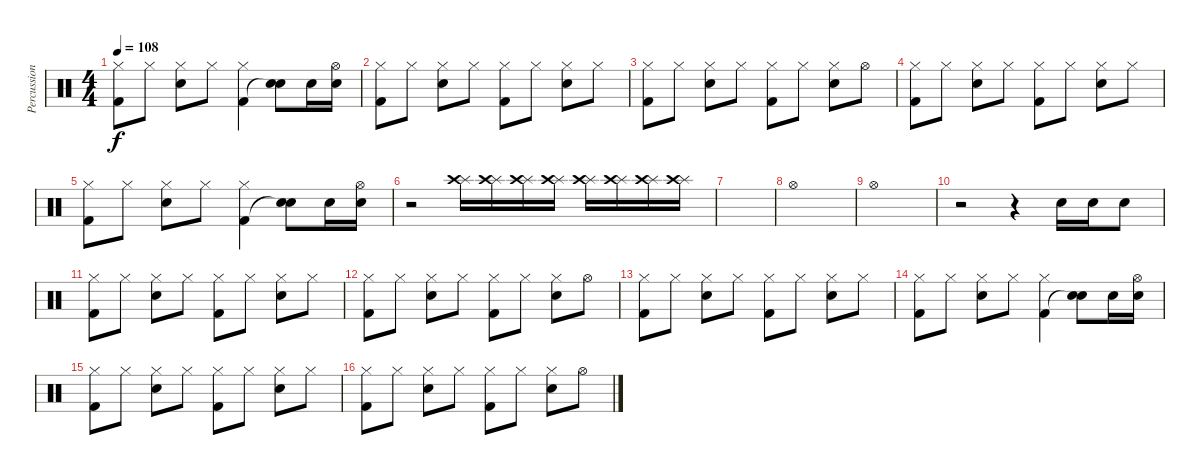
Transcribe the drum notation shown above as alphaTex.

\track ("Percussion" "Percussion") {instrument percussion}
\staff {score}
\articulation defaults
\ts (4 4)
\tempo 108
\clef neutral
\ks c
("Hi-Hat (closed)" "Kick (hit) 2").8{dy f} "Hi-Hat (closed)".8 ("Hi-Hat (closed)" "Snare (hit) 2").8 "Hi-Hat (closed)".8 ("Hi-Hat (closed)" "Kick (hit) 2").4 ("Snare (hit) 2" "Snare (hit)"{t}).8 "Snare (hit) 2".16 ("Hi-Hat (open)" "Snare (hit) 2").16 |
("Hi-Hat (closed)" "Kick (hit) 2").8 "Hi-Hat (closed)".8 ("Hi-Hat (closed)" "Snare (hit) 2").8 "Hi-Hat (closed)".8 ("Hi-Hat (closed)" "Kick (hit) 2").8 "Hi-Hat (closed)".8 ("Hi-Hat (closed)" "Snare (hit) 2").8 "Hi-Hat (closed)".8 |
("Hi-Hat (closed)" "Kick (hit) 2").8 "Hi-Hat (closed)".8 ("Hi-Hat (closed)" "Snare (hit) 2").8 "Hi-Hat (closed)".8 ("Hi-Hat (closed)" "Kick (hit) 2").8 "Hi-Hat (closed)".8 ("Hi-Hat (closed)" "Snare (hit) 2").8 "Hi-Hat (open)".8 |
("Hi-Hat (closed)" "Kick (hit) 2").8 "Hi-Hat (closed)".8 ("Hi-Hat (closed)" "Snare (hit) 2").8 "Hi-Hat (closed)".8 ("Hi-Hat (closed)" "Kick (hit) 2").8 "Hi-Hat (closed)".8 ("Hi-Hat (closed)" "Snare (hit) 2").8 "Hi-Hat (closed)".8 |
("Hi-Hat (closed)" "Kick (hit) 2").8 "Hi-Hat (closed)".8 ("Hi-Hat (closed)" "Snare (hit) 2").8 "Hi-Hat (closed)".8 ("Hi-Hat (closed)" "Kick (hit) 2").4 ("Snare (hit) 2" "Snare (hit)"{t}).8 "Snare (hit) 2".16 ("Hi-Hat (open)" "Snare (hit) 2").16 |
r.2 ("Splash (hit)" "Crash high (hit)").16 ("Splash (hit)" "Crash high (hit)").16 ("Splash (hit)" "Crash high (hit)").16 ("Splash (hit)" "Crash high (hit)").16 ("Splash (hit)" "Crash high (hit)").16 ("Splash (hit)" "Crash high (hit)").16 ("Splash (hit)" "Crash high (hit)").16 ("Splash (hit)" "Crash high (hit)").16 |
|
"Hi-Hat (open)".1 |
"Hi-Hat (open)".1 |
r.2 r.4 "Snare (hit) 2".16 "Snare (hit) 2".16 "Snare (hit) 2".8 |
("Hi-Hat (closed)" "Kick (hit) 2").8 "Hi-Hat (closed)".8 ("Hi-Hat (closed)" "Snare (hit) 2").8 "Hi-Hat (closed)".8 ("Hi-Hat (closed)" "Kick (hit) 2").8 "Hi-Hat (closed)".8 ("Hi-Hat (closed)" "Snare (hit) 2").8 "Hi-Hat (closed)".8 |
("Hi-Hat (closed)" "Kick (hit) 2").8 "Hi-Hat (closed)".8 ("Hi-Hat (closed)" "Snare (hit) 2").8 "Hi-Hat (closed)".8 ("Hi-Hat (closed)" "Kick (hit) 2").8 "Hi-Hat (closed)".8 ("Hi-Hat (closed)" "Snare (hit) 2").8 "Hi-Hat (open)".8 |
("Hi-Hat (closed)" "Kick (hit) 2").8 "Hi-Hat (closed)".8 ("Hi-Hat (closed)" "Snare (hit) 2").8 "Hi-Hat (closed)".8 ("Hi-Hat (closed)" "Kick (hit) 2").8 "Hi-Hat (closed)".8 ("Hi-Hat (closed)" "Snare (hit) 2").8 "Hi-Hat (closed)".8 |
("Hi-Hat (closed)" "Kick (hit) 2").8 "Hi-Hat (closed)".8 ("Hi-Hat (closed)" "Snare (hit) 2").8 "Hi-Hat (closed)".8 ("Hi-Hat (closed)" "Kick (hit) 2").4 ("Snare (hit) 2" "Snare (hit)"{t}).8 "Snare (hit) 2".16 ("Hi-Hat (open)" "Snare (hit) 2").16 |
("Hi-Hat (closed)" "Kick (hit) 2").8 "Hi-Hat (closed)".8 ("Hi-Hat (closed)" "Snare (hit) 2").8 "Hi-Hat (closed)".8 ("Hi-Hat (closed)" "Kick (hit) 2").8 "Hi-Hat (closed)".8 ("Hi-Hat (closed)" "Snare (hit) 2").8 "Hi-Hat (closed)".8 |
("Hi-Hat (closed)" "Kick (hit) 2").8 "Hi-Hat (closed)".8 ("Hi-Hat (closed)" "Snare (hit) 2").8 "Hi-Hat (closed)".8 ("Hi-Hat (closed)" "Kick (hit) 2").8 "Hi-Hat (closed)".8 ("Hi-Hat (closed)" "Snare (hit) 2").8 "Hi-Hat (open)".8
